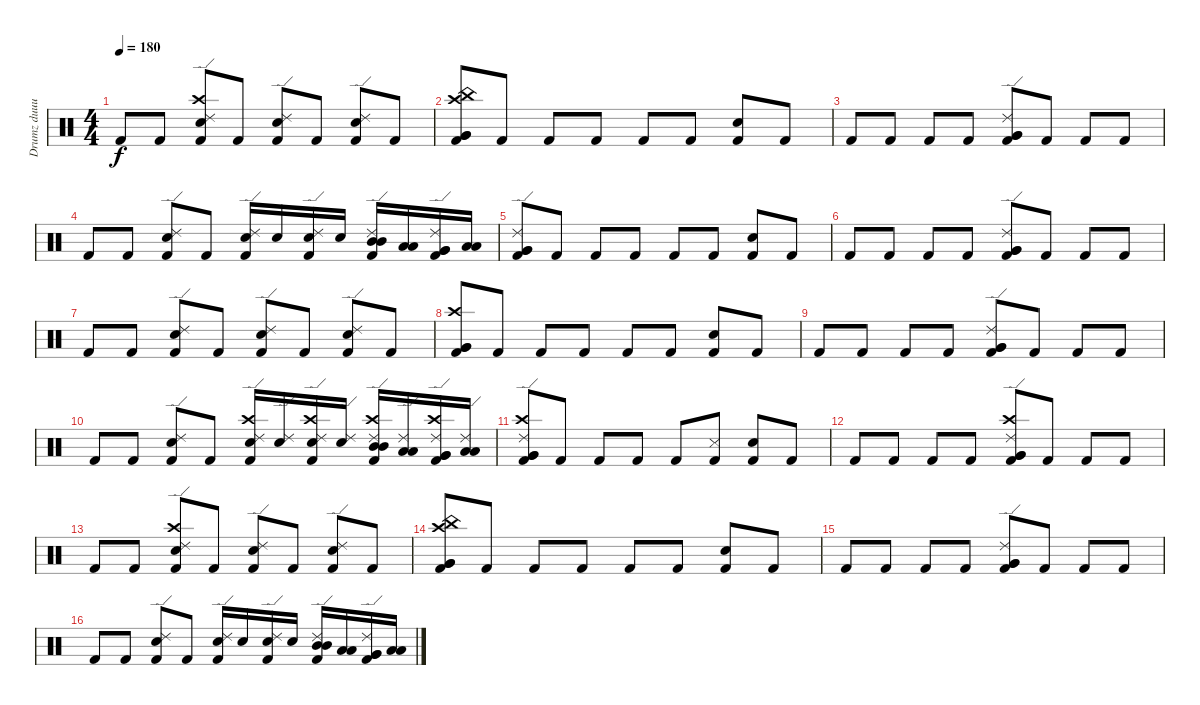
\track ("Drumz duuuuude" "Drumz duuu") {instrument percussion}
\staff {score}
\articulation defaults
\ts (4 4)
\tempo 180
\clef neutral
\ks c "Kick (hit) 2".8{dy f} "Kick (hit) 2".8
("Ride (edge) 2" "Crash high (hit)" "Kick (hit) 2" "Snare (hit) 2").8 "Kick (hit) 2".8 ("Ride (edge) 2" "Kick (hit) 2" "Electric Snare (hit)").8 "Kick (hit) 2".8 ("Ride (edge) 2" "Kick (hit) 2" "Electric Snare (hit)").8 "Kick (hit) 2".8 |
("Crash high (hit)" "China (hit)" "Kick (hit) 2" "Very Low Tom (hit)" "Very Low Tom (hit)").8 "Kick (hit) 2".8 "Kick (hit) 2".8 "Kick (hit) 2".8 "Kick (hit) 2".8 "Kick (hit) 2".8 ("Kick (hit) 2" "Snare (hit) 2").8 "Kick (hit) 2".8 |
"Kick (hit) 2".8 "Kick (hit) 2".8 "Kick (hit) 2".8 "Kick (hit) 2".8 ("Ride (edge) 2" "Kick (hit) 2" "Very Low Tom (hit)" "Very Low Tom (hit)").8 "Kick (hit) 2".8 "Kick (hit) 2".8 "Kick (hit) 2".8 |
"Kick (hit) 2".8 "Kick (hit) 2".8 ("Ride (edge) 2" "Kick (hit) 2" "Snare (hit) 2").8 "Kick (hit) 2".8 ("Ride (edge) 2" "Kick (hit) 2" "Electric Snare (hit)").16 "Electric Snare (hit)".16 ("Ride (edge) 2" "Kick (hit) 2" "Electric Snare (hit)").16 "Electric Snare (hit)".16 ("Ride (edge) 2" "Kick (hit) 2" "Mid Tom (hit)" "Mid Tom (hit)").16 ("Low Tom (hit)" "Low Tom (hit)").16 ("Ride (edge) 2" "Kick (hit) 2" "Very Low Tom (hit)" "Very Low Tom (hit)").16 ("Low Floor Tom (hit)" "Low Floor Tom (hit)").16 |
("Ride (edge) 2" "Kick (hit) 2" "Very Low Tom (hit)" "Very Low Tom (hit)").8 "Kick (hit) 2".8 "Kick (hit) 2".8 "Kick (hit) 2".8 "Kick (hit) 2".8 "Kick (hit) 2".8 ("Kick (hit) 2" "Snare (hit) 2").8 "Kick (hit) 2".8 |
"Kick (hit) 2".8 "Kick (hit) 2".8 "Kick (hit) 2".8 "Kick (hit) 2".8 ("Ride (edge) 2" "Kick (hit) 2" "Very Low Tom (hit)" "Very Low Tom (hit)").8 "Kick (hit) 2".8 "Kick (hit) 2".8 "Kick (hit) 2".8 |
"Kick (hit) 2".8 "Kick (hit) 2".8 ("Ride (edge) 2" "Kick (hit) 2" "Snare (hit) 2").8 "Kick (hit) 2".8 ("Ride (edge) 2" "Kick (hit) 2" "Electric Snare (hit)").8 "Kick (hit) 2".8 ("Ride (edge) 2" "Kick (hit) 2" "Electric Snare (hit)").8 "Kick (hit) 2".8 |
("Crash high (hit)" "Kick (hit) 2" "Very Low Tom (hit)" "Very Low Tom (hit)").8 "Kick (hit) 2".8 "Kick (hit) 2".8 "Kick (hit) 2".8 "Kick (hit) 2".8 "Kick (hit) 2".8 ("Kick (hit) 2" "Snare (hit) 2").8 "Kick (hit) 2".8 |
"Kick (hit) 2".8 "Kick (hit) 2".8 "Kick (hit) 2".8 "Kick (hit) 2".8 ("Ride (edge) 2" "Kick (hit) 2" "Very Low Tom (hit)" "Very Low Tom (hit)").8 "Kick (hit) 2".8 "Kick (hit) 2".8 "Kick (hit) 2".8 |
"Kick (hit) 2".8 "Kick (hit) 2".8 ("Ride (edge) 2" "Kick (hit) 2" "Snare (hit) 2").8 "Kick (hit) 2".8 ("Ride (edge) 2" "Crash high (hit)" "Kick (hit) 2" "Electric Snare (hit)").16 ("Ride (edge) 2" "Electric Snare (hit)").16 ("Ride (edge) 2" "Crash high (hit)" "Kick (hit) 2" "Electric Snare (hit)").16 ("Ride (edge) 2" "Electric Snare (hit)").16 ("Ride (edge) 2" "Crash high (hit)" "Kick (hit) 2" "Mid Tom (hit)" "Mid Tom (hit)").16 ("Ride (edge) 2" "Low Tom (hit)" "Low Tom (hit)").16 ("Ride (edge) 2" "Crash high (hit)" "Kick (hit) 2" "Very Low Tom (hit)" "Very Low Tom (hit)").16 ("Ride (edge) 2" "Low Floor Tom (hit)" "Low Floor Tom (hit)").16 |
("Ride (edge) 2" "Crash high (hit)" "Kick (hit) 2" "Very Low Tom (hit)" "Very Low Tom (hit)").8 "Kick (hit) 2".8 "Kick (hit) 2".8 "Kick (hit) 2".8 "Kick (hit) 2".8 ("Kick (hit) 2" "Snare (side stick) 3").8 ("Kick (hit) 2" "Snare (hit) 2").8 "Kick (hit) 2".8 |
"Kick (hit) 2".8 "Kick (hit) 2".8 "Kick (hit) 2".8 "Kick (hit) 2".8 ("Ride (edge) 2" "Crash high (hit)" "Kick (hit) 2" "Very Low Tom (hit)" "Very Low Tom (hit)").8 "Kick (hit) 2".8 "Kick (hit) 2".8 "Kick (hit) 2".8 |
"Kick (hit) 2".8 "Kick (hit) 2".8 ("Ride (edge) 2" "Crash high (hit)" "Kick (hit) 2" "Snare (hit) 2").8 "Kick (hit) 2".8 ("Ride (edge) 2" "Kick (hit) 2" "Electric Snare (hit)").8 "Kick (hit) 2".8 ("Ride (edge) 2" "Kick (hit) 2" "Electric Snare (hit)").8 "Kick (hit) 2".8 |
("Crash high (hit)" "China (hit)" "Kick (hit) 2" "Very Low Tom (hit)" "Very Low Tom (hit)").8 "Kick (hit) 2".8 "Kick (hit) 2".8 "Kick (hit) 2".8 "Kick (hit) 2".8 "Kick (hit) 2".8 ("Kick (hit) 2" "Snare (hit) 2").8 "Kick (hit) 2".8 |
"Kick (hit) 2".8 "Kick (hit) 2".8 "Kick (hit) 2".8 "Kick (hit) 2".8 ("Ride (edge) 2" "Kick (hit) 2" "Very Low Tom (hit)" "Very Low Tom (hit)").8 "Kick (hit) 2".8 "Kick (hit) 2".8 "Kick (hit) 2".8 |
"Kick (hit) 2".8 "Kick (hit) 2".8 ("Ride (edge) 2" "Kick (hit) 2" "Snare (hit) 2").8 "Kick (hit) 2".8 ("Ride (edge) 2" "Kick (hit) 2" "Electric Snare (hit)").16 "Electric Snare (hit)".16 ("Ride (edge) 2" "Kick (hit) 2" "Electric Snare (hit)").16 "Electric Snare (hit)".16 ("Ride (edge) 2" "Kick (hit) 2" "Mid Tom (hit)" "Mid Tom (hit)").16 ("Low Tom (hit)" "Low Tom (hit)").16 ("Ride (edge) 2" "Kick (hit) 2" "Very Low Tom (hit)" "Very Low Tom (hit)").16 ("Low Floor Tom (hit)" "Low Floor Tom (hit)").16
